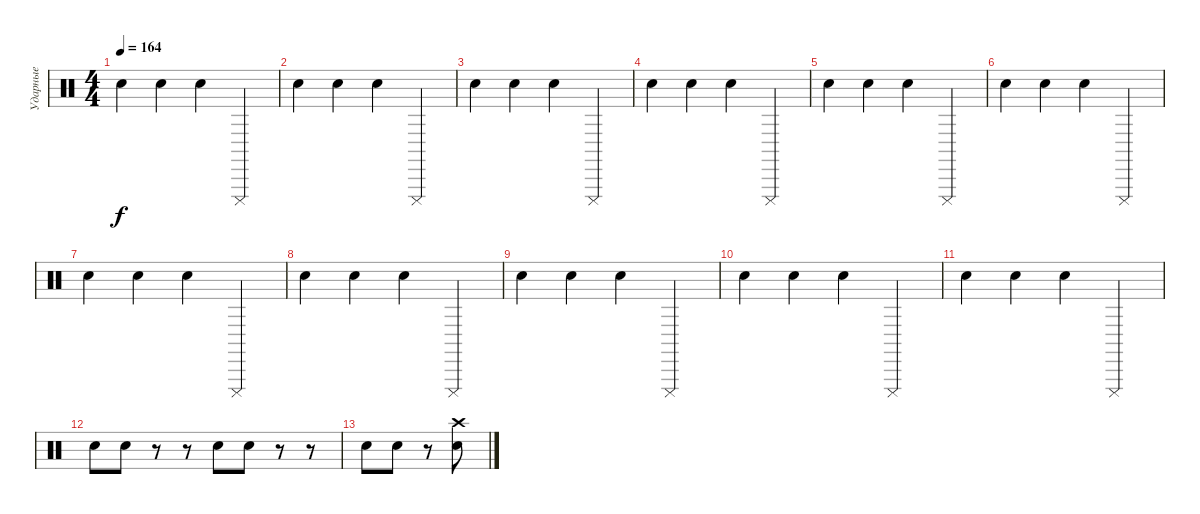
\track ("Ударные" "Ударные") {instrument percussion}
\staff {score}
\articulation defaults
\ts (4 4)
\tempo 164
\clef neutral
\ks c "Hand Clap (hit)".4{dy f} "Electric Snare (hit)".4 "Snare (hit) 2".4 "Cuica (mute)".4
|
"Hand Clap (hit)".4 "Electric Snare (hit)".4 "Snare (hit) 2".4 "Cuica (mute)".4 |
"Hand Clap (hit)".4 "Electric Snare (hit)".4 "Snare (hit) 2".4 "Cuica (mute)".4 |
"Hand Clap (hit)".4 "Electric Snare (hit)".4 "Snare (hit) 2".4 "Cuica (mute)".4 |
"Hand Clap (hit)".4 "Electric Snare (hit)".4 "Snare (hit) 2".4 "Cuica (mute)".4 |
"Hand Clap (hit)".4 "Electric Snare (hit)".4 "Snare (hit) 2".4 "Cuica (mute)".4 |
"Hand Clap (hit)".4 "Electric Snare (hit)".4 "Snare (hit) 2".4 "Cuica (mute)".4 |
"Hand Clap (hit)".4 "Electric Snare (hit)".4 "Snare (hit) 2".4 "Cuica (mute)".4 |
"Hand Clap (hit)".4 "Electric Snare (hit)".4 "Snare (hit) 2".4 "Cuica (mute)".4 |
"Hand Clap (hit)".4 "Electric Snare (hit)".4 "Snare (hit) 2".4 "Cuica (mute)".4 |
"Hand Clap (hit)".4 "Electric Snare (hit)".4 "Snare (hit) 2".4 "Cuica (mute)".4 |
"Snare (hit) 2".8 "Snare (hit) 2".8 r.8 r.8 "Snare (hit) 2".8 "Snare (hit) 2".8 r.8 r.8 |
"Snare (hit) 2".8 "Snare (hit) 2".8 r.8 ("Crash high (hit)" "Snare (hit) 2").8
